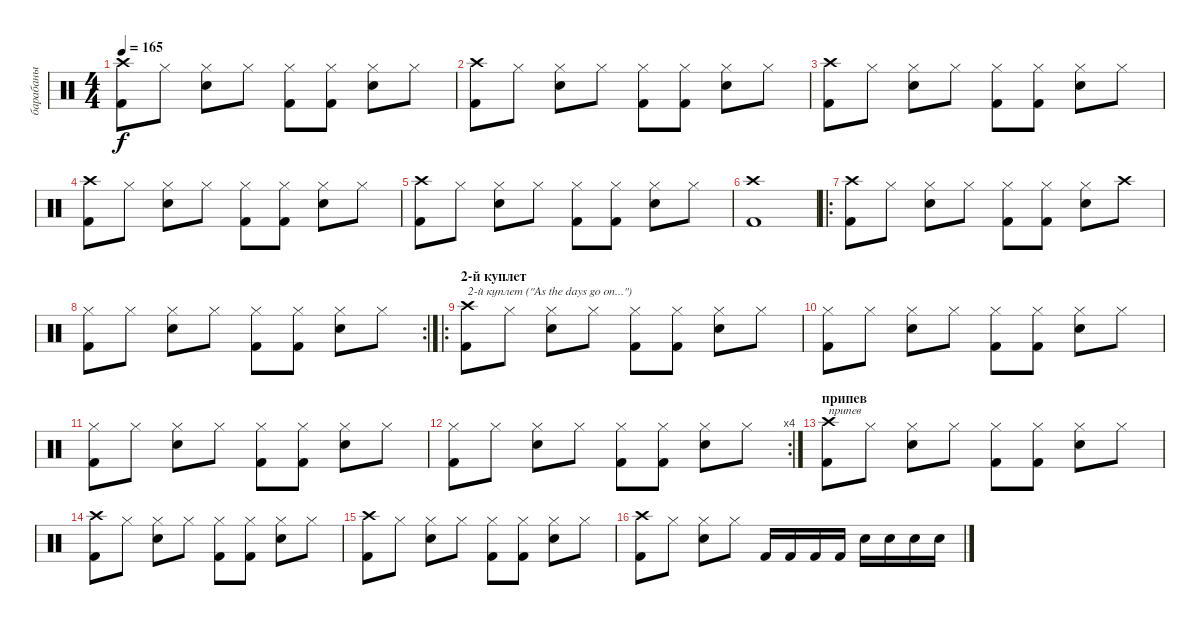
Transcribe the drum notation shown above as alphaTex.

\track ("барабаны" "барабаны") {instrument percussion}
\staff {score}
\articulation defaults
\ts (4 4)
\tempo 165
\clef neutral
\ks c
("Crash high (hit)" "Kick (hit) 2").8{dy f} "Hi-Hat (closed)".8 ("Hi-Hat (closed)" "Snare (hit) 2").8 "Hi-Hat (closed)".8 ("Hi-Hat (closed)" "Kick (hit) 2").8 ("Hi-Hat (closed)" "Kick (hit) 2").8 ("Hi-Hat (closed)" "Snare (hit) 2").8 "Hi-Hat (closed)".8 |
("Crash high (hit)" "Kick (hit) 2").8 "Hi-Hat (closed)".8 ("Hi-Hat (closed)" "Snare (hit) 2").8 "Hi-Hat (closed)".8 ("Hi-Hat (closed)" "Kick (hit) 2").8 ("Hi-Hat (closed)" "Kick (hit) 2").8 ("Hi-Hat (closed)" "Snare (hit) 2").8 "Hi-Hat (closed)".8 |
("Crash high (hit)" "Kick (hit) 2").8 "Hi-Hat (closed)".8 ("Hi-Hat (closed)" "Snare (hit) 2").8 "Hi-Hat (closed)".8 ("Hi-Hat (closed)" "Kick (hit) 2").8 ("Hi-Hat (closed)" "Kick (hit) 2").8 ("Hi-Hat (closed)" "Snare (hit) 2").8 "Hi-Hat (closed)".8 |
("Crash high (hit)" "Kick (hit) 2").8 "Hi-Hat (closed)".8 ("Hi-Hat (closed)" "Snare (hit) 2").8 "Hi-Hat (closed)".8 ("Hi-Hat (closed)" "Kick (hit) 2").8 ("Hi-Hat (closed)" "Kick (hit) 2").8 ("Hi-Hat (closed)" "Snare (hit) 2").8 "Hi-Hat (closed)".8 |
("Crash high (hit)" "Kick (hit) 2").8 "Hi-Hat (closed)".8 ("Hi-Hat (closed)" "Snare (hit) 2").8 "Hi-Hat (closed)".8 ("Hi-Hat (closed)" "Kick (hit) 2").8 ("Hi-Hat (closed)" "Kick (hit) 2").8 ("Hi-Hat (closed)" "Snare (hit) 2").8 "Hi-Hat (closed)".8 |
("Crash high (hit)" "Kick (hit) 2").1 |
\ro
("Crash high (hit)" "Kick (hit) 2").8 "Hi-Hat (closed)".8 ("Hi-Hat (closed)" "Snare (hit) 2").8 "Hi-Hat (closed)".8 ("Hi-Hat (closed)" "Kick (hit) 2").8 ("Hi-Hat (closed)" "Kick (hit) 2").8 ("Hi-Hat (closed)" "Snare (hit) 2").8 "Crash high (hit)".8 |
\rc 2
("Hi-Hat (closed)" "Kick (hit) 2").8 "Hi-Hat (closed)".8 ("Hi-Hat (closed)" "Snare (hit) 2").8 "Hi-Hat (closed)".8 ("Hi-Hat (closed)" "Kick (hit) 2").8 ("Hi-Hat (closed)" "Kick (hit) 2").8 ("Hi-Hat (closed)" "Snare (hit) 2").8 "Hi-Hat (closed)".8 |
\ro
\section ("" "2-й куплет")
("Crash high (hit)" "Kick (hit) 2").8{txt "2-й куплет (\"As the days go on...\") "} "Hi-Hat (closed)".8 ("Hi-Hat (closed)" "Snare (hit) 2").8 "Hi-Hat (closed)".8 ("Hi-Hat (closed)" "Kick (hit) 2").8 ("Hi-Hat (closed)" "Kick (hit) 2").8 ("Hi-Hat (closed)" "Snare (hit) 2").8 "Hi-Hat (closed)".8 |
("Hi-Hat (closed)" "Kick (hit) 2").8 "Hi-Hat (closed)".8 ("Hi-Hat (closed)" "Snare (hit) 2").8 "Hi-Hat (closed)".8 ("Hi-Hat (closed)" "Kick (hit) 2").8 ("Hi-Hat (closed)" "Kick (hit) 2").8 ("Hi-Hat (closed)" "Snare (hit) 2").8 "Hi-Hat (closed)".8 |
("Hi-Hat (closed)" "Kick (hit) 2").8 "Hi-Hat (closed)".8 ("Hi-Hat (closed)" "Snare (hit) 2").8 "Hi-Hat (closed)".8 ("Hi-Hat (closed)" "Kick (hit) 2").8 ("Hi-Hat (closed)" "Kick (hit) 2").8 ("Hi-Hat (closed)" "Snare (hit) 2").8 "Hi-Hat (closed)".8 |
\rc 4
("Hi-Hat (closed)" "Kick (hit) 2").8 "Hi-Hat (closed)".8 ("Hi-Hat (closed)" "Snare (hit) 2").8 "Hi-Hat (closed)".8 ("Hi-Hat (closed)" "Kick (hit) 2").8 ("Hi-Hat (closed)" "Kick (hit) 2").8 ("Hi-Hat (closed)" "Snare (hit) 2").8 "Hi-Hat (closed)".8 |
\section ("" "припев")
("Crash high (hit)" "Kick (hit) 2").8{txt "припев"} "Hi-Hat (closed)".8 ("Hi-Hat (closed)" "Snare (hit) 2").8 "Hi-Hat (closed)".8 ("Hi-Hat (closed)" "Kick (hit) 2").8 ("Hi-Hat (closed)" "Kick (hit) 2").8 ("Hi-Hat (closed)" "Snare (hit) 2").8 "Hi-Hat (closed)".8 |
("Crash high (hit)" "Kick (hit) 2").8 "Hi-Hat (closed)".8 ("Hi-Hat (closed)" "Snare (hit) 2").8 "Hi-Hat (closed)".8 ("Hi-Hat (closed)" "Kick (hit) 2").8 ("Hi-Hat (closed)" "Kick (hit) 2").8 ("Hi-Hat (closed)" "Snare (hit) 2").8 "Hi-Hat (closed)".8 |
("Crash high (hit)" "Kick (hit) 2").8 "Hi-Hat (closed)".8 ("Hi-Hat (closed)" "Snare (hit) 2").8 "Hi-Hat (closed)".8 ("Hi-Hat (closed)" "Kick (hit) 2").8 ("Hi-Hat (closed)" "Kick (hit) 2").8 ("Hi-Hat (closed)" "Snare (hit) 2").8 "Hi-Hat (closed)".8 |
("Crash high (hit)" "Kick (hit) 2").8 "Hi-Hat (closed)".8 ("Hi-Hat (closed)" "Snare (hit) 2").8 "Hi-Hat (closed)".8 "Kick (hit) 2".16 "Kick (hit) 2".16 "Kick (hit) 2".16 "Kick (hit) 2".16 "Snare (hit) 2".16 "Snare (hit) 2".16 "Snare (hit) 2".16 "Snare (hit) 2".16
